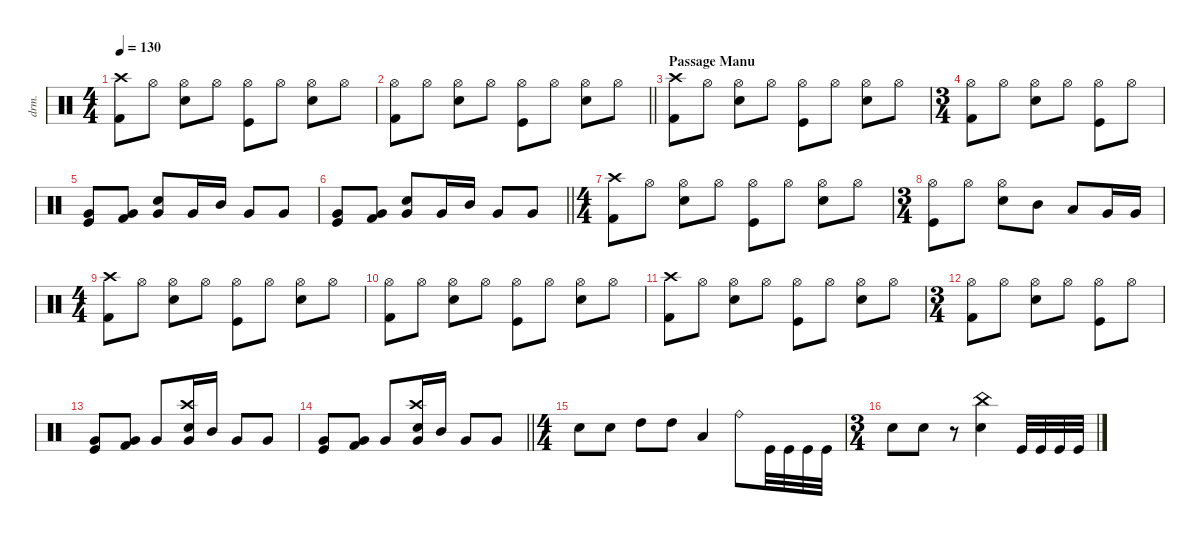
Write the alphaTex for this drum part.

\defaultSystemsLayout 4
\hideDynamics
\bracketExtendMode nobrackets
\track ("Manouche" "drm.") {instrument percussion}
\staff {score}
\articulation defaults
\ts (4 4)
\beaming (8 2 2 2 2)
\tempo 130
\clef neutral
\ks c
("Kick (hit) 2" "Crash high (hit)").8{dy f beam Down} "Hi-Hat (open)".8{dy mp beam Down} ("Hi-Hat (open)" "Snare (hit) 2").8{dy f beam Down} "Hi-Hat (open)".8{dy mp beam Down} ("Hi-Hat (open)" "Kick (hit)").8{dy f beam Down} "Hi-Hat (open)".8{dy mp beam Down} ("Hi-Hat (open)" "Snare (hit) 2").8{dy f beam Down} "Hi-Hat (open)".8{dy mp beam Down} |
\barLineRight lightlight
("Hi-Hat (open)" "Kick (hit) 2").8{dy f beam Down} "Hi-Hat (open)".8{dy mp beam Down} ("Hi-Hat (open)" "Snare (hit) 2").8{dy f beam Down} "Hi-Hat (open)".8{dy mp beam Down} ("Hi-Hat (open)" "Kick (hit)").8{dy f beam Down} "Hi-Hat (open)".8{dy mp beam Down} ("Hi-Hat (open)" "Snare (hit) 2").8{dy f beam Down} "Hi-Hat (open)".8{dy mp beam Down} |
\section ("" "Passage Manu")
("Kick (hit) 2" "Crash high (hit)").8{dy f beam Down} "Hi-Hat (open)".8{dy mp beam Down} ("Hi-Hat (open)" "Snare (hit) 2").8{dy f beam Down} "Hi-Hat (open)".8{dy mp beam Down} ("Hi-Hat (open)" "Kick (hit)").8{dy f beam Down} "Hi-Hat (open)".8{dy mp beam Down} ("Hi-Hat (open)" "Snare (hit) 2").8{dy f beam Down} "Hi-Hat (open)".8{dy mp beam Down} |
\ts (3 4)
\beaming (8 2 2 2 2)
("Hi-Hat (open)" "Kick (hit) 2").8{dy f beam Down} "Hi-Hat (open)".8{dy mp beam Down} ("Hi-Hat (open)" "Snare (hit) 2").8{dy f beam Down} "Hi-Hat (open)".8{dy mp beam Down} ("Hi-Hat (open)" "Kick (hit)").8{dy f beam Down} "Hi-Hat (open)".8{dy mp beam Down} |
\beaming (8 2 2 2)
("Kick (hit)" "Very Low Tom (hit)").8{dy f beam Up} ("Very Low Tom (hit)" "Kick (hit) 2").8{beam Up} ("Very Low Tom (hit)" "Snare (hit) 2").8{beam Up} "Very Low Tom (hit)".16{beam Up} "Mid Tom (hit)".16{beam Up} "Very Low Tom (hit)".8{beam Up} "Very Low Tom (hit)".8{beam Up} |
\barLineRight lightlight
("Kick (hit)" "Very Low Tom (hit)").8{beam Up} ("Very Low Tom (hit)" "Kick (hit) 2").8{beam Up} ("Very Low Tom (hit)" "Snare (hit) 2").8{beam Up} "Very Low Tom (hit)".16{beam Up} "Mid Tom (hit)".16{beam Up} "Very Low Tom (hit)".8{beam Up} "Very Low Tom (hit)".8{beam Up} |
\ts (4 4)
\beaming (8 2 2 2 2)
("Crash high (hit)" "Kick (hit) 2").8{dy fff beam Down} "Hi-Hat (open)".8{dy mp beam Down} ("Hi-Hat (open)" "Snare (hit) 2").8{dy f beam Down} "Hi-Hat (open)".8{dy mp beam Down} ("Hi-Hat (open)" "Kick (hit)").8{dy f beam Down} "Hi-Hat (open)".8{dy mp beam Down} ("Hi-Hat (open)" "Snare (hit) 2").8{dy f beam Down} "Hi-Hat (open)".8{dy mp beam Down} |
\ts (3 4)
\beaming (8 2 2 2)
("Hi-Hat (open)" "Kick (hit)").8{dy f beam Down} "Hi-Hat (open)".8{dy mp beam Down} ("Hi-Hat (open)" "Snare (hit) 2").8{dy f beam Down} "Mid Tom (hit)".8{beam Down} "Low Tom (hit)".8{beam Up} "Very Low Tom (hit)".16{beam Up} "Very Low Tom (hit)".16{beam Up} |
\ts (4 4)
\beaming (8 2 2 2 2)
("Kick (hit) 2" "Crash high (hit)").8{beam Down} "Hi-Hat (open)".8{dy mp beam Down} ("Hi-Hat (open)" "Snare (hit) 2").8{dy f beam Down} "Hi-Hat (open)".8{dy mp beam Down} ("Hi-Hat (open)" "Kick (hit)").8{dy f beam Down} "Hi-Hat (open)".8{dy mp beam Down} ("Hi-Hat (open)" "Snare (hit) 2").8{dy f beam Down} "Hi-Hat (open)".8{dy mp beam Down} |
("Hi-Hat (open)" "Kick (hit) 2").8{dy f beam Down} "Hi-Hat (open)".8{dy mp beam Down} ("Hi-Hat (open)" "Snare (hit) 2").8{dy f beam Down} "Hi-Hat (open)".8{dy mp beam Down} ("Hi-Hat (open)" "Kick (hit)").8{dy f beam Down} "Hi-Hat (open)".8{dy mp beam Down} ("Hi-Hat (open)" "Snare (hit) 2").8{dy f beam Down} "Hi-Hat (open)".8{dy mp beam Down} |
("Kick (hit) 2" "Crash high (hit)").8{dy f beam Down} "Hi-Hat (open)".8{dy mp beam Down} ("Hi-Hat (open)" "Snare (hit) 2").8{dy f beam Down} "Hi-Hat (open)".8{dy mp beam Down} ("Hi-Hat (open)" "Kick (hit)").8{dy f beam Down} "Hi-Hat (open)".8{dy mp beam Down} ("Hi-Hat (open)" "Snare (hit) 2").8{dy f beam Down} "Hi-Hat (open)".8{dy mp beam Down} |
\ts (3 4)
\beaming (8 2 2 2)
("Hi-Hat (open)" "Kick (hit) 2").8{dy f beam Down} "Hi-Hat (open)".8{dy mp beam Down} ("Hi-Hat (open)" "Snare (hit) 2").8{dy f beam Down} "Hi-Hat (open)".8{dy mp beam Down} ("Hi-Hat (open)" "Kick (hit)").8{dy f beam Down} "Hi-Hat (open)".8{dy mp beam Down} |
("Kick (hit)" "Very Low Tom (hit)").8{dy f beam Up} ("Very Low Tom (hit)" "Kick (hit) 2").8{beam Up} "Very Low Tom (hit)".8{beam Up} ("Very Low Tom (hit)" "Crash high (hit)" "Snare (hit) 2").16{beam Up} "Mid Tom (hit)".16{beam Up} "Very Low Tom (hit)".8{beam Up} "Very Low Tom (hit)".8{beam Up} |
\barLineRight lightlight
("Kick (hit)" "Very Low Tom (hit)").8{beam Up} ("Very Low Tom (hit)" "Kick (hit) 2").8{beam Up} "Very Low Tom (hit)".8{beam Up} ("Very Low Tom (hit)" "Crash high (hit)" "Snare (hit) 2").16{beam Up} "Mid Tom (hit)".16{beam Up} "Very Low Tom (hit)".8{beam Up} "Very Low Tom (hit)".8{beam Up} |
\ts (4 4)
\beaming (8 2 2 2 2)
"Snare (hit) 2".8{beam Down} "Snare (hit) 2".8{beam Down} "High Tom (hit)".8{beam Down} "High Tom (hit)".8{beam Down} "Low Tom (hit)".4{beam Up} "Ride (bell)".8{beam Down} "Kick (hit)".32{beam Down} "Kick (hit)".32{beam Down} "Kick (hit)".32{beam Down} "Kick (hit)".32{beam Down} |
\ts (3 4)
\beaming (8 2 2 2)
"Snare (hit) 2".8{beam Down} "Snare (hit) 2".8{beam Down} r.8{beam Down} ("Snare (hit) 2" "China (hit)").4{beam Down} "Kick (hit)".32{beam Up} "Kick (hit)".32{beam Up} "Kick (hit)".32{beam Up} "Kick (hit)".32{beam Up}
